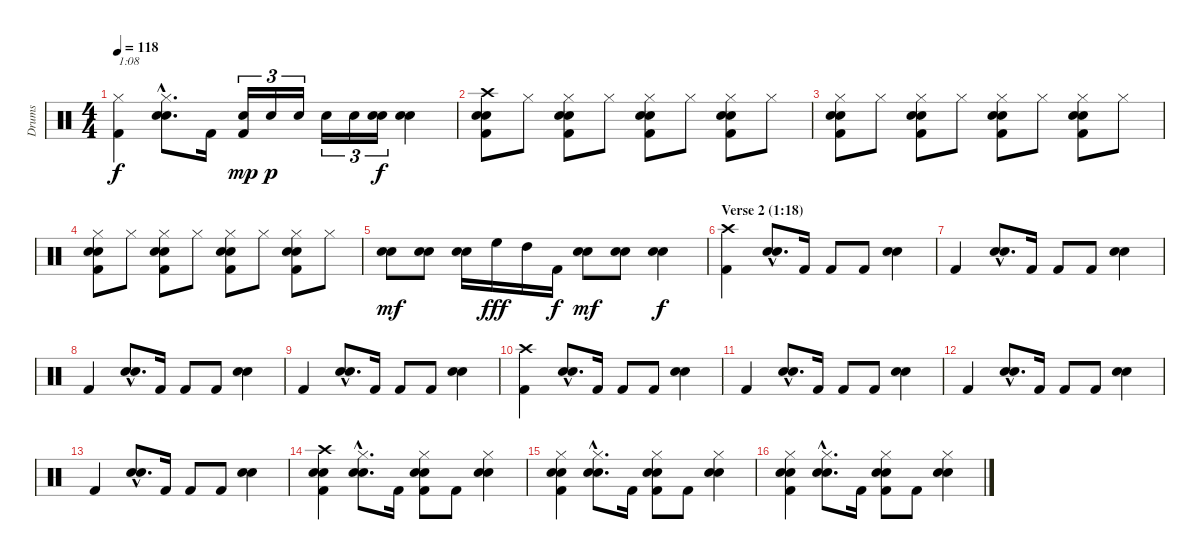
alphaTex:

\track ("Drums" "Drums") {instrument percussion}
\staff {score}
\articulation defaults
\ts (4 4)
\tempo 118
\clef neutral
\ks c
("Hi-Hat (closed)" "Kick (hit) 2").4{txt "1:08" dy f} ("Hi-Hat (closed)"{hac} "Electric Snare (hit)"{hac} "Snare (hit) 2"{hac}).8{d} "Kick (hit) 2".16 ("Electric Snare (hit)" "Kick (hit) 2").16{tu (3 2) dy mp} "Electric Snare (hit)".16{tu (3 2) dy p} "Electric Snare (hit)".16{tu (3 2)} "Electric Snare (hit)".16{tu (3 2)} "Electric Snare (hit)".16{tu (3 2)} ("Electric Snare (hit)" "Snare (hit) 2").16{tu (3 2) dy f} ("Electric Snare (hit)" "Snare (hit) 2").4 |
("Crash high (hit)" "Electric Snare (hit)" "Snare (hit) 2" "Kick (hit) 2").8 "Hi-Hat (closed)".8 ("Hi-Hat (closed)" "Electric Snare (hit)" "Snare (hit) 2" "Kick (hit) 2").8 "Hi-Hat (closed)".8 ("Hi-Hat (closed)" "Electric Snare (hit)" "Snare (hit) 2" "Kick (hit) 2").8 "Hi-Hat (closed)".8 ("Hi-Hat (closed)" "Electric Snare (hit)" "Snare (hit) 2" "Kick (hit) 2").8 "Hi-Hat (closed)".8 |
("Hi-Hat (closed)" "Electric Snare (hit)" "Snare (hit) 2" "Kick (hit) 2").8 "Hi-Hat (closed)".8 ("Hi-Hat (closed)" "Electric Snare (hit)" "Snare (hit) 2" "Kick (hit) 2").8 "Hi-Hat (closed)".8 ("Hi-Hat (closed)" "Electric Snare (hit)" "Snare (hit) 2" "Kick (hit) 2").8 "Hi-Hat (closed)".8 ("Hi-Hat (closed)" "Electric Snare (hit)" "Snare (hit) 2" "Kick (hit) 2").8 "Hi-Hat (closed)".8 |
("Hi-Hat (closed)" "Electric Snare (hit)" "Snare (hit) 2" "Kick (hit) 2").8 "Hi-Hat (closed)".8 ("Hi-Hat (closed)" "Electric Snare (hit)" "Snare (hit) 2" "Kick (hit) 2").8 "Hi-Hat (closed)".8 ("Hi-Hat (closed)" "Electric Snare (hit)" "Snare (hit) 2" "Kick (hit) 2").8 "Hi-Hat (closed)".8 ("Hi-Hat (closed)" "Electric Snare (hit)" "Snare (hit) 2" "Kick (hit) 2").8 "Hi-Hat (closed)".8 |
("Electric Snare (hit)" "Snare (hit) 2").8{dy mf} ("Electric Snare (hit)" "Snare (hit) 2").8 ("Electric Snare (hit)" "Snare (hit) 2").16 "High Floor Tom (hit)".16{dy fff} "High Tom (hit)".16 "Kick (hit) 2".16{dy f} ("Electric Snare (hit)" "Snare (hit) 2").8{dy mf} ("Electric Snare (hit)" "Snare (hit) 2").8 ("Electric Snare (hit)" "Snare (hit) 2").4{dy f} |
\section ("" "Verse 2 (1:18)")
("Crash high (hit)" "Kick (hit) 2").4 ("Electric Snare (hit)"{hac} "Snare (hit) 2"{hac}).8{d} "Kick (hit) 2".16 "Kick (hit) 2".8 "Kick (hit) 2".8 ("Electric Snare (hit)" "Snare (hit) 2").4 |
"Kick (hit) 2".4 ("Electric Snare (hit)"{hac} "Snare (hit) 2"{hac}).8{d} "Kick (hit) 2".16 "Kick (hit) 2".8 "Kick (hit) 2".8 ("Electric Snare (hit)" "Snare (hit) 2").4 |
"Kick (hit) 2".4 ("Electric Snare (hit)"{hac} "Snare (hit) 2"{hac}).8{d} "Kick (hit) 2".16 "Kick (hit) 2".8 "Kick (hit) 2".8 ("Electric Snare (hit)" "Snare (hit) 2").4 |
"Kick (hit) 2".4 ("Electric Snare (hit)"{hac} "Snare (hit) 2"{hac}).8{d} "Kick (hit) 2".16 "Kick (hit) 2".8 "Kick (hit) 2".8 ("Electric Snare (hit)" "Snare (hit) 2").4 |
("Crash high (hit)" "Kick (hit) 2").4 ("Electric Snare (hit)"{hac} "Snare (hit) 2"{hac}).8{d} "Kick (hit) 2".16 "Kick (hit) 2".8 "Kick (hit) 2".8 ("Electric Snare (hit)" "Snare (hit) 2").4 |
"Kick (hit) 2".4 ("Electric Snare (hit)"{hac} "Snare (hit) 2"{hac}).8{d} "Kick (hit) 2".16 "Kick (hit) 2".8 "Kick (hit) 2".8 ("Electric Snare (hit)" "Snare (hit) 2").4 |
"Kick (hit) 2".4 ("Electric Snare (hit)"{hac} "Snare (hit) 2"{hac}).8{d} "Kick (hit) 2".16 "Kick (hit) 2".8 "Kick (hit) 2".8 ("Electric Snare (hit)" "Snare (hit) 2").4 |
"Kick (hit) 2".4 ("Electric Snare (hit)"{hac} "Snare (hit) 2"{hac}).8{d} "Kick (hit) 2".16 "Kick (hit) 2".8 "Kick (hit) 2".8 ("Electric Snare (hit)" "Snare (hit) 2").4 |
("Crash high (hit)" "Electric Snare (hit)" "Snare (hit) 2" "Kick (hit) 2").4 ("Hi-Hat (closed)"{hac} "Electric Snare (hit)"{hac} "Snare (hit) 2"{hac}).8{d} "Kick (hit) 2".16 ("Hi-Hat (closed)" "Electric Snare (hit)" "Snare (hit) 2" "Kick (hit) 2").8 "Kick (hit) 2".8 ("Hi-Hat (closed)" "Electric Snare (hit)" "Snare (hit) 2").4 |
("Hi-Hat (closed)" "Electric Snare (hit)" "Snare (hit) 2" "Kick (hit) 2").4 ("Hi-Hat (closed)"{hac} "Electric Snare (hit)"{hac} "Snare (hit) 2"{hac}).8{d} "Kick (hit) 2".16 ("Hi-Hat (closed)" "Electric Snare (hit)" "Snare (hit) 2" "Kick (hit) 2").8 "Kick (hit) 2".8 ("Hi-Hat (closed)" "Electric Snare (hit)" "Snare (hit) 2").4 |
("Hi-Hat (closed)" "Electric Snare (hit)" "Snare (hit) 2" "Kick (hit) 2").4 ("Hi-Hat (closed)"{hac} "Electric Snare (hit)"{hac} "Snare (hit) 2"{hac}).8{d} "Kick (hit) 2".16 ("Hi-Hat (closed)" "Electric Snare (hit)" "Snare (hit) 2" "Kick (hit) 2").8 "Kick (hit) 2".8 ("Hi-Hat (closed)" "Electric Snare (hit)" "Snare (hit) 2").4
